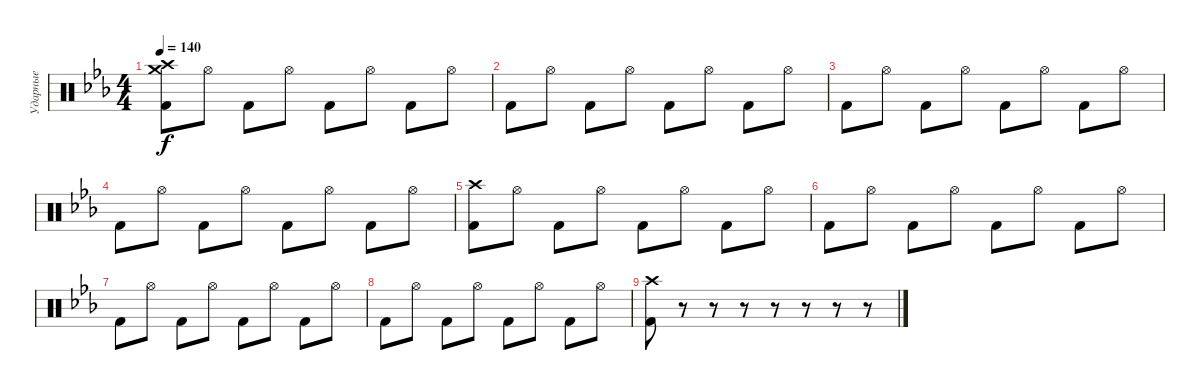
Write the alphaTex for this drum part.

\track ("Ударные" "Ударные") {instrument percussion}
\staff {score}
\articulation defaults
\ts (4 4)
\tempo 140
\clef neutral
\ks cminor
("Kick (hit) 2" "Crash high (hit)" "Crash medium (hit)").8{dy f} "Hi-Hat (open)".8 "Kick (hit) 2".8 "Hi-Hat (open)".8 "Kick (hit) 2".8 "Hi-Hat (open)".8 "Kick (hit) 2".8 "Hi-Hat (open)".8 |
"Kick (hit) 2".8 "Hi-Hat (open)".8 "Kick (hit) 2".8 "Hi-Hat (open)".8 "Kick (hit) 2".8 "Hi-Hat (open)".8 "Kick (hit) 2".8 "Hi-Hat (open)".8 |
"Kick (hit) 2".8 "Hi-Hat (open)".8 "Kick (hit) 2".8 "Hi-Hat (open)".8 "Kick (hit) 2".8 "Hi-Hat (open)".8 "Kick (hit) 2".8 "Hi-Hat (open)".8 |
"Kick (hit) 2".8 "Hi-Hat (open)".8 "Kick (hit) 2".8 "Hi-Hat (open)".8 "Kick (hit) 2".8 "Hi-Hat (open)".8 "Kick (hit) 2".8 "Hi-Hat (open)".8 |
("Kick (hit) 2" "Crash high (hit)").8 "Hi-Hat (open)".8 "Kick (hit) 2".8 "Hi-Hat (open)".8 "Kick (hit) 2".8 "Hi-Hat (open)".8 "Kick (hit) 2".8 "Hi-Hat (open)".8 |
"Kick (hit) 2".8 "Hi-Hat (open)".8 "Kick (hit) 2".8 "Hi-Hat (open)".8 "Kick (hit) 2".8 "Hi-Hat (open)".8 "Kick (hit) 2".8 "Hi-Hat (open)".8 |
"Kick (hit) 2".8 "Hi-Hat (open)".8 "Kick (hit) 2".8 "Hi-Hat (open)".8 "Kick (hit) 2".8 "Hi-Hat (open)".8 "Kick (hit) 2".8 "Hi-Hat (open)".8 |
"Kick (hit) 2".8 "Hi-Hat (open)".8 "Kick (hit) 2".8 "Hi-Hat (open)".8 "Kick (hit) 2".8 "Hi-Hat (open)".8 "Kick (hit) 2".8 "Hi-Hat (open)".8 |
("Kick (hit) 2" "Crash high (hit)").8 r.8 r.8 r.8 r.8 r.8 r.8 r.8
